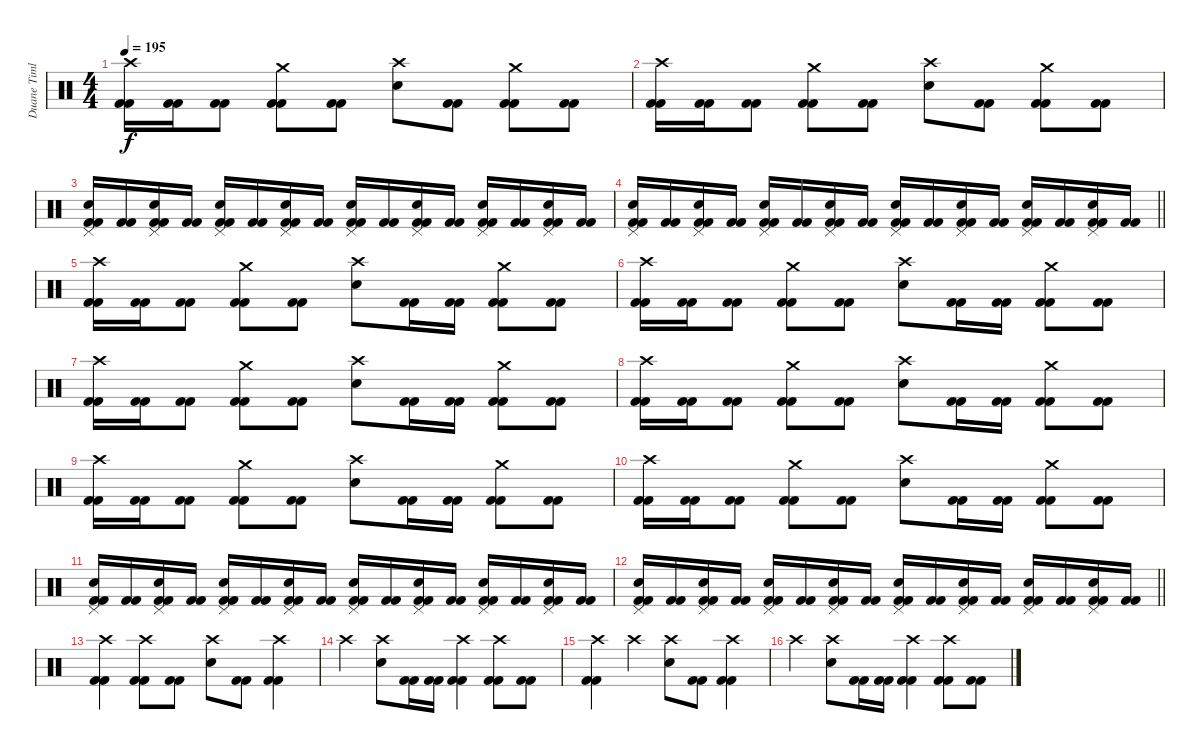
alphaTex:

\track ("Duane Timlin" "Duane Timl") {instrument percussion}
\staff {score}
\articulation defaults
\ts (4 4)
\tempo 195
\clef neutral
\ks c
("Crash high (hit)" "Kick (hit) 2" "Kick (hit) 2").16{dy f} ("Kick (hit) 2" "Kick (hit) 2").16 ("Kick (hit) 2" "Kick (hit) 2").8 ("Crash medium (hit)" "Kick (hit) 2" "Kick (hit) 2").8 ("Kick (hit) 2" "Kick (hit) 2").8 ("Crash high (hit)" "Electric Snare (hit)").8 ("Kick (hit) 2" "Kick (hit) 2").8 ("Crash medium (hit)" "Kick (hit) 2" "Kick (hit) 2").8 ("Kick (hit) 2" "Kick (hit) 2").8 |
("Crash high (hit)" "Kick (hit) 2" "Kick (hit) 2").16 ("Kick (hit) 2" "Kick (hit) 2").16 ("Kick (hit) 2" "Kick (hit) 2").8 ("Crash medium (hit)" "Kick (hit) 2" "Kick (hit) 2").8 ("Kick (hit) 2" "Kick (hit) 2").8 ("Crash high (hit)" "Electric Snare (hit)").8 ("Kick (hit) 2" "Kick (hit) 2").8 ("Crash medium (hit)" "Kick (hit) 2" "Kick (hit) 2").8 ("Kick (hit) 2" "Kick (hit) 2").8 |
("Pedal Hi-Hat (hit)" "Electric Snare (hit)" "Kick (hit) 2" "Kick (hit) 2").16 ("Kick (hit) 2" "Kick (hit) 2").16 ("Pedal Hi-Hat (hit)" "Electric Snare (hit)" "Kick (hit) 2" "Kick (hit) 2").16 ("Kick (hit) 2" "Kick (hit) 2").16 ("Pedal Hi-Hat (hit)" "Electric Snare (hit)" "Kick (hit) 2" "Kick (hit) 2").16 ("Kick (hit) 2" "Kick (hit) 2").16 ("Pedal Hi-Hat (hit)" "Electric Snare (hit)" "Kick (hit) 2" "Kick (hit) 2").16 ("Kick (hit) 2" "Kick (hit) 2").16 ("Pedal Hi-Hat (hit)" "Electric Snare (hit)" "Kick (hit) 2" "Kick (hit) 2").16 ("Kick (hit) 2" "Kick (hit) 2").16 ("Pedal Hi-Hat (hit)" "Electric Snare (hit)" "Kick (hit) 2" "Kick (hit) 2").16 ("Kick (hit) 2" "Kick (hit) 2").16 ("Pedal Hi-Hat (hit)" "Electric Snare (hit)" "Kick (hit) 2" "Kick (hit) 2").16 ("Kick (hit) 2" "Kick (hit) 2").16 ("Pedal Hi-Hat (hit)" "Electric Snare (hit)" "Kick (hit) 2" "Kick (hit) 2").16 ("Kick (hit) 2" "Kick (hit) 2").16 |
\barLineRight lightlight
("Pedal Hi-Hat (hit)" "Electric Snare (hit)" "Kick (hit) 2" "Kick (hit) 2").16 ("Kick (hit) 2" "Kick (hit) 2").16 ("Pedal Hi-Hat (hit)" "Electric Snare (hit)" "Kick (hit) 2" "Kick (hit) 2").16 ("Kick (hit) 2" "Kick (hit) 2").16 ("Pedal Hi-Hat (hit)" "Electric Snare (hit)" "Kick (hit) 2" "Kick (hit) 2").16 ("Kick (hit) 2" "Kick (hit) 2").16 ("Pedal Hi-Hat (hit)" "Electric Snare (hit)" "Kick (hit) 2" "Kick (hit) 2").16 ("Kick (hit) 2" "Kick (hit) 2").16 ("Pedal Hi-Hat (hit)" "Electric Snare (hit)" "Kick (hit) 2" "Kick (hit) 2").16 ("Kick (hit) 2" "Kick (hit) 2").16 ("Pedal Hi-Hat (hit)" "Electric Snare (hit)" "Kick (hit) 2" "Kick (hit) 2").16 ("Kick (hit) 2" "Kick (hit) 2").16 ("Pedal Hi-Hat (hit)" "Electric Snare (hit)" "Kick (hit) 2" "Kick (hit) 2").16 ("Kick (hit) 2" "Kick (hit) 2").16 ("Pedal Hi-Hat (hit)" "Electric Snare (hit)" "Kick (hit) 2" "Kick (hit) 2").16 ("Kick (hit) 2" "Kick (hit) 2").16 |
("Crash high (hit)" "Kick (hit) 2" "Kick (hit) 2").16 ("Kick (hit) 2" "Kick (hit) 2").16 ("Kick (hit) 2" "Kick (hit) 2").8 ("Crash medium (hit)" "Kick (hit) 2" "Kick (hit) 2").8 ("Kick (hit) 2" "Kick (hit) 2").8 ("Crash high (hit)" "Electric Snare (hit)").8 ("Kick (hit) 2" "Kick (hit) 2").16 ("Kick (hit) 2" "Kick (hit) 2").16 ("Crash medium (hit)" "Kick (hit) 2" "Kick (hit) 2").8 ("Kick (hit) 2" "Kick (hit) 2").8 |
("Crash high (hit)" "Kick (hit) 2" "Kick (hit) 2").16 ("Kick (hit) 2" "Kick (hit) 2").16 ("Kick (hit) 2" "Kick (hit) 2").8 ("Crash medium (hit)" "Kick (hit) 2" "Kick (hit) 2").8 ("Kick (hit) 2" "Kick (hit) 2").8 ("Crash high (hit)" "Electric Snare (hit)").8 ("Kick (hit) 2" "Kick (hit) 2").16 ("Kick (hit) 2" "Kick (hit) 2").16 ("Crash medium (hit)" "Kick (hit) 2" "Kick (hit) 2").8 ("Kick (hit) 2" "Kick (hit) 2").8 |
("Crash high (hit)" "Kick (hit) 2" "Kick (hit) 2").16 ("Kick (hit) 2" "Kick (hit) 2").16 ("Kick (hit) 2" "Kick (hit) 2").8 ("Crash medium (hit)" "Kick (hit) 2" "Kick (hit) 2").8 ("Kick (hit) 2" "Kick (hit) 2").8 ("Crash high (hit)" "Electric Snare (hit)").8 ("Kick (hit) 2" "Kick (hit) 2").16 ("Kick (hit) 2" "Kick (hit) 2").16 ("Crash medium (hit)" "Kick (hit) 2" "Kick (hit) 2").8 ("Kick (hit) 2" "Kick (hit) 2").8 |
("Crash high (hit)" "Kick (hit) 2" "Kick (hit) 2").16 ("Kick (hit) 2" "Kick (hit) 2").16 ("Kick (hit) 2" "Kick (hit) 2").8 ("Crash medium (hit)" "Kick (hit) 2" "Kick (hit) 2").8 ("Kick (hit) 2" "Kick (hit) 2").8 ("Crash high (hit)" "Electric Snare (hit)").8 ("Kick (hit) 2" "Kick (hit) 2").16 ("Kick (hit) 2" "Kick (hit) 2").16 ("Crash medium (hit)" "Kick (hit) 2" "Kick (hit) 2").8 ("Kick (hit) 2" "Kick (hit) 2").8 |
("Crash high (hit)" "Kick (hit) 2" "Kick (hit) 2").16 ("Kick (hit) 2" "Kick (hit) 2").16 ("Kick (hit) 2" "Kick (hit) 2").8 ("Crash medium (hit)" "Kick (hit) 2" "Kick (hit) 2").8 ("Kick (hit) 2" "Kick (hit) 2").8 ("Crash high (hit)" "Electric Snare (hit)").8 ("Kick (hit) 2" "Kick (hit) 2").16 ("Kick (hit) 2" "Kick (hit) 2").16 ("Crash medium (hit)" "Kick (hit) 2" "Kick (hit) 2").8 ("Kick (hit) 2" "Kick (hit) 2").8 |
("Crash high (hit)" "Kick (hit) 2" "Kick (hit) 2").16 ("Kick (hit) 2" "Kick (hit) 2").16 ("Kick (hit) 2" "Kick (hit) 2").8 ("Crash medium (hit)" "Kick (hit) 2" "Kick (hit) 2").8 ("Kick (hit) 2" "Kick (hit) 2").8 ("Crash high (hit)" "Electric Snare (hit)").8 ("Kick (hit) 2" "Kick (hit) 2").16 ("Kick (hit) 2" "Kick (hit) 2").16 ("Crash medium (hit)" "Kick (hit) 2" "Kick (hit) 2").8 ("Kick (hit) 2" "Kick (hit) 2").8 |
("Pedal Hi-Hat (hit)" "Electric Snare (hit)" "Kick (hit) 2" "Kick (hit) 2").16 ("Kick (hit) 2" "Kick (hit) 2").16 ("Pedal Hi-Hat (hit)" "Electric Snare (hit)" "Kick (hit) 2" "Kick (hit) 2").16 ("Kick (hit) 2" "Kick (hit) 2").16 ("Pedal Hi-Hat (hit)" "Electric Snare (hit)" "Kick (hit) 2" "Kick (hit) 2").16 ("Kick (hit) 2" "Kick (hit) 2").16 ("Pedal Hi-Hat (hit)" "Electric Snare (hit)" "Kick (hit) 2" "Kick (hit) 2").16 ("Kick (hit) 2" "Kick (hit) 2").16 ("Pedal Hi-Hat (hit)" "Electric Snare (hit)" "Kick (hit) 2" "Kick (hit) 2").16 ("Kick (hit) 2" "Kick (hit) 2").16 ("Pedal Hi-Hat (hit)" "Electric Snare (hit)" "Kick (hit) 2" "Kick (hit) 2").16 ("Kick (hit) 2" "Kick (hit) 2").16 ("Pedal Hi-Hat (hit)" "Electric Snare (hit)" "Kick (hit) 2" "Kick (hit) 2").16 ("Kick (hit) 2" "Kick (hit) 2").16 ("Pedal Hi-Hat (hit)" "Electric Snare (hit)" "Kick (hit) 2" "Kick (hit) 2").16 ("Kick (hit) 2" "Kick (hit) 2").16 |
\barLineRight lightlight
("Pedal Hi-Hat (hit)" "Electric Snare (hit)" "Kick (hit) 2" "Kick (hit) 2").16 ("Kick (hit) 2" "Kick (hit) 2").16 ("Pedal Hi-Hat (hit)" "Electric Snare (hit)" "Kick (hit) 2" "Kick (hit) 2").16 ("Kick (hit) 2" "Kick (hit) 2").16 ("Pedal Hi-Hat (hit)" "Electric Snare (hit)" "Kick (hit) 2" "Kick (hit) 2").16 ("Kick (hit) 2" "Kick (hit) 2").16 ("Pedal Hi-Hat (hit)" "Electric Snare (hit)" "Kick (hit) 2" "Kick (hit) 2").16 ("Kick (hit) 2" "Kick (hit) 2").16 ("Pedal Hi-Hat (hit)" "Electric Snare (hit)" "Kick (hit) 2" "Kick (hit) 2").16 ("Kick (hit) 2" "Kick (hit) 2").16 ("Pedal Hi-Hat (hit)" "Electric Snare (hit)" "Kick (hit) 2" "Kick (hit) 2").16 ("Kick (hit) 2" "Kick (hit) 2").16 ("Pedal Hi-Hat (hit)" "Electric Snare (hit)" "Kick (hit) 2" "Kick (hit) 2").16 ("Kick (hit) 2" "Kick (hit) 2").16 ("Pedal Hi-Hat (hit)" "Electric Snare (hit)" "Kick (hit) 2" "Kick (hit) 2").16 ("Kick (hit) 2" "Kick (hit) 2").16 |
("Crash high (hit)" "Kick (hit) 2" "Kick (hit) 2").4 ("Crash high (hit)" "Kick (hit) 2" "Kick (hit) 2").8 ("Kick (hit) 2" "Kick (hit) 2").8 ("Crash high (hit)" "Electric Snare (hit)").8 ("Kick (hit) 2" "Kick (hit) 2").8 ("Crash high (hit)" "Kick (hit) 2" "Kick (hit) 2").4 |
"Crash high (hit)".4 ("Crash high (hit)" "Electric Snare (hit)").8 ("Kick (hit) 2" "Kick (hit) 2").16 ("Kick (hit) 2" "Kick (hit) 2").16 ("Crash high (hit)" "Kick (hit) 2" "Kick (hit) 2").4 ("Crash high (hit)" "Kick (hit) 2" "Kick (hit) 2").8 ("Kick (hit) 2" "Kick (hit) 2").8 |
("Crash high (hit)" "Kick (hit) 2" "Kick (hit) 2").4 "Crash high (hit)".4 ("Crash high (hit)" "Electric Snare (hit)").8 ("Kick (hit) 2" "Kick (hit) 2").8 ("Crash high (hit)" "Kick (hit) 2" "Kick (hit) 2").4 |
"Crash high (hit)".4 ("Crash high (hit)" "Electric Snare (hit)").8 ("Kick (hit) 2" "Kick (hit) 2").16 ("Kick (hit) 2" "Kick (hit) 2").16 ("Crash high (hit)" "Kick (hit) 2" "Kick (hit) 2").4 ("Crash high (hit)" "Kick (hit) 2" "Kick (hit) 2").8 ("Kick (hit) 2" "Kick (hit) 2").8
